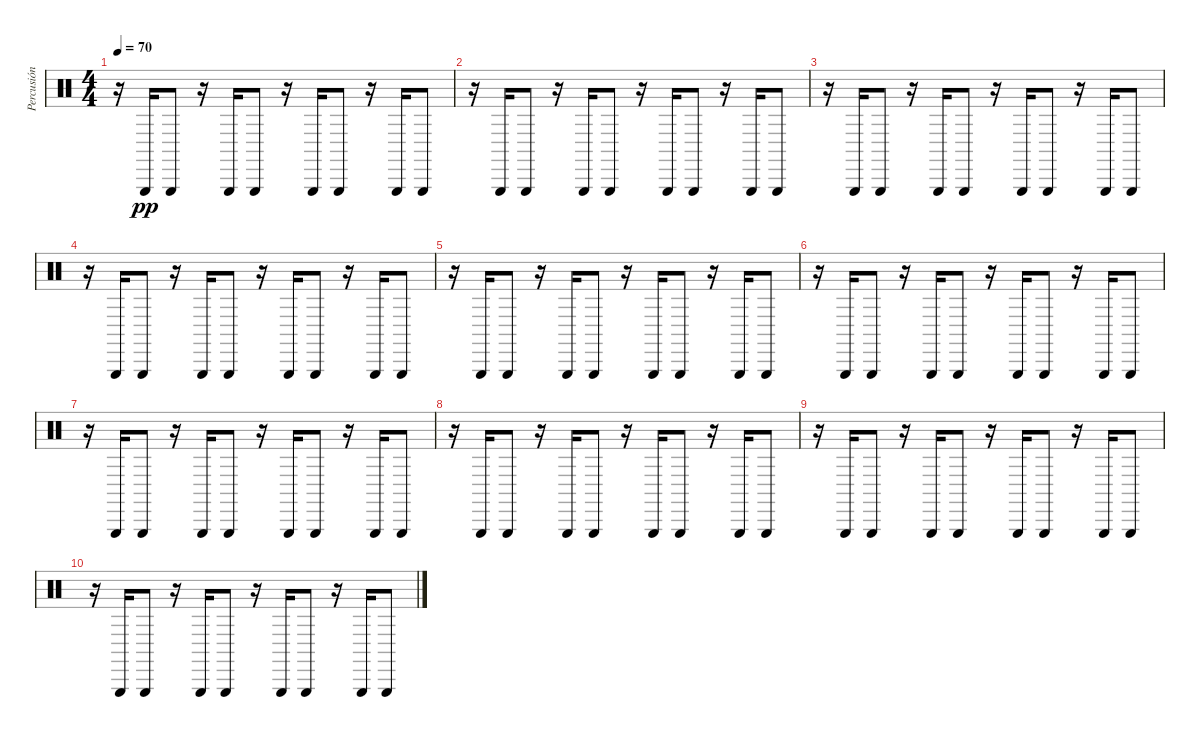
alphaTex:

\track ("Percusión" "Percusión") {instrument percussion}
\staff {score}
\articulation defaults
\ts (4 4)
\tempo 70
\clef neutral
\ks c
r.16{dy pp} "Triangle (hit)".16 "Triangle (hit)".8 r.16 "Triangle (hit)".16 "Triangle (hit)".8 r.16 "Triangle (hit)".16 "Triangle (hit)".8 r.16 "Triangle (hit)".16 "Triangle (hit)".8 |
r.16 "Triangle (hit)".16 "Triangle (hit)".8 r.16 "Triangle (hit)".16 "Triangle (hit)".8 r.16 "Triangle (hit)".16 "Triangle (hit)".8 r.16 "Triangle (hit)".16 "Triangle (hit)".8 |
r.16 "Triangle (hit)".16 "Triangle (hit)".8 r.16 "Triangle (hit)".16 "Triangle (hit)".8 r.16 "Triangle (hit)".16 "Triangle (hit)".8 r.16 "Triangle (hit)".16 "Triangle (hit)".8 |
r.16 "Triangle (hit)".16 "Triangle (hit)".8 r.16 "Triangle (hit)".16 "Triangle (hit)".8 r.16 "Triangle (hit)".16 "Triangle (hit)".8 r.16 "Triangle (hit)".16 "Triangle (hit)".8 |
r.16 "Triangle (hit)".16 "Triangle (hit)".8 r.16 "Triangle (hit)".16 "Triangle (hit)".8 r.16 "Triangle (hit)".16 "Triangle (hit)".8 r.16 "Triangle (hit)".16 "Triangle (hit)".8 |
r.16 "Triangle (hit)".16 "Triangle (hit)".8 r.16 "Triangle (hit)".16 "Triangle (hit)".8 r.16 "Triangle (hit)".16 "Triangle (hit)".8 r.16 "Triangle (hit)".16 "Triangle (hit)".8 |
r.16 "Triangle (hit)".16 "Triangle (hit)".8 r.16 "Triangle (hit)".16 "Triangle (hit)".8 r.16 "Triangle (hit)".16 "Triangle (hit)".8 r.16 "Triangle (hit)".16 "Triangle (hit)".8 |
r.16 "Triangle (hit)".16 "Triangle (hit)".8 r.16 "Triangle (hit)".16 "Triangle (hit)".8 r.16 "Triangle (hit)".16 "Triangle (hit)".8 r.16 "Triangle (hit)".16 "Triangle (hit)".8 |
r.16 "Triangle (hit)".16 "Triangle (hit)".8 r.16 "Triangle (hit)".16 "Triangle (hit)".8 r.16 "Triangle (hit)".16 "Triangle (hit)".8 r.16 "Triangle (hit)".16 "Triangle (hit)".8 |
r.16 "Triangle (hit)".16 "Triangle (hit)".8 r.16 "Triangle (hit)".16 "Triangle (hit)".8 r.16 "Triangle (hit)".16 "Triangle (hit)".8 r.16 "Triangle (hit)".16 "Triangle (hit)".8
